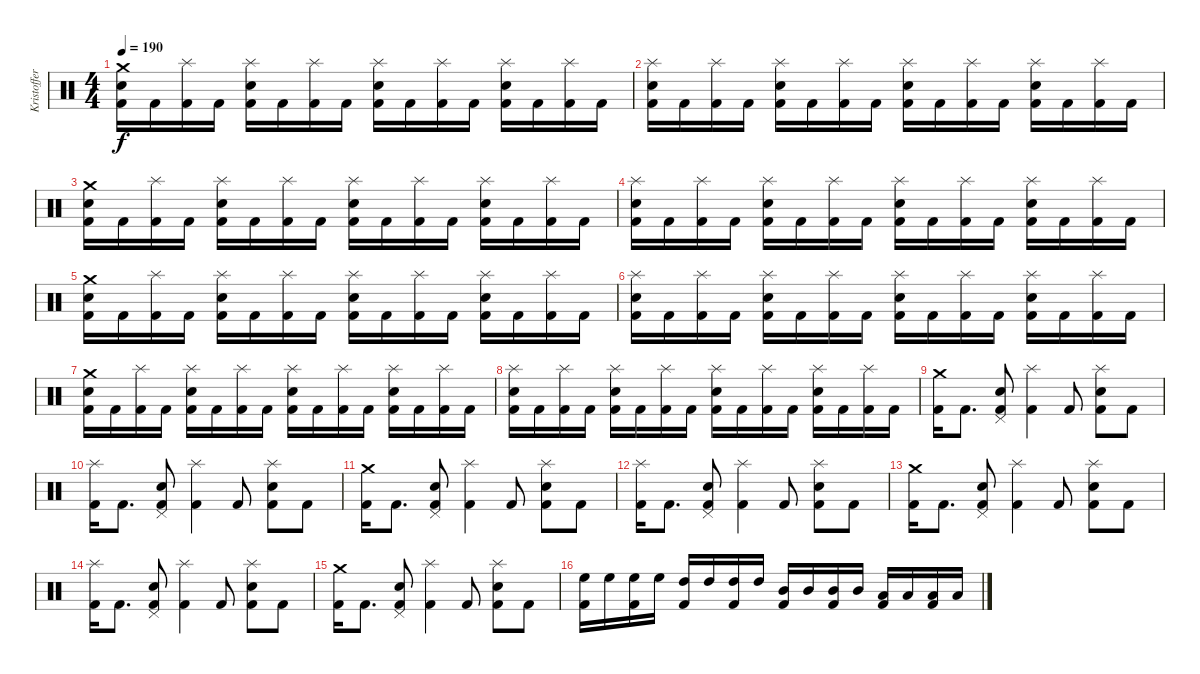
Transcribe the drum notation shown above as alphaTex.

\track ("Kristoffer (Drums)" "Kristoffer") {instrument percussion}
\staff {score}
\articulation defaults
\ts (4 4)
\tempo 190
\clef neutral
\ks c
("Kick (hit) 2" "Electric Snare (hit)" "Crash medium (hit)").16{dy f} "Kick (hit) 2".16 ("Kick (hit) 2" "Splash (hit)").16 "Kick (hit) 2".16 ("Kick (hit) 2" "Electric Snare (hit)" "Splash (hit)").16 "Kick (hit) 2".16 ("Kick (hit) 2" "Splash (hit)").16 "Kick (hit) 2".16 ("Kick (hit) 2" "Electric Snare (hit)" "Splash (hit)").16 "Kick (hit) 2".16 ("Kick (hit) 2" "Splash (hit)").16 "Kick (hit) 2".16 ("Kick (hit) 2" "Electric Snare (hit)" "Splash (hit)").16 "Kick (hit) 2".16 ("Kick (hit) 2" "Splash (hit)").16 "Kick (hit) 2".16 |
("Kick (hit) 2" "Electric Snare (hit)" "Splash (hit)").16 "Kick (hit) 2".16 ("Kick (hit) 2" "Splash (hit)").16 "Kick (hit) 2".16 ("Kick (hit) 2" "Electric Snare (hit)" "Splash (hit)").16 "Kick (hit) 2".16 ("Kick (hit) 2" "Splash (hit)").16 "Kick (hit) 2".16 ("Kick (hit) 2" "Electric Snare (hit)" "Splash (hit)").16 "Kick (hit) 2".16 ("Kick (hit) 2" "Splash (hit)").16 "Kick (hit) 2".16 ("Kick (hit) 2" "Electric Snare (hit)" "Splash (hit)").16 "Kick (hit) 2".16 ("Kick (hit) 2" "Splash (hit)").16 "Kick (hit) 2".16 |
("Kick (hit) 2" "Electric Snare (hit)" "Crash medium (hit)").16 "Kick (hit) 2".16 ("Kick (hit) 2" "Splash (hit)").16 "Kick (hit) 2".16 ("Kick (hit) 2" "Electric Snare (hit)" "Splash (hit)").16 "Kick (hit) 2".16 ("Kick (hit) 2" "Splash (hit)").16 "Kick (hit) 2".16 ("Kick (hit) 2" "Electric Snare (hit)" "Splash (hit)").16 "Kick (hit) 2".16 ("Kick (hit) 2" "Splash (hit)").16 "Kick (hit) 2".16 ("Kick (hit) 2" "Electric Snare (hit)" "Splash (hit)").16 "Kick (hit) 2".16 ("Kick (hit) 2" "Splash (hit)").16 "Kick (hit) 2".16 |
("Kick (hit) 2" "Electric Snare (hit)" "Splash (hit)").16 "Kick (hit) 2".16 ("Kick (hit) 2" "Splash (hit)").16 "Kick (hit) 2".16 ("Kick (hit) 2" "Electric Snare (hit)" "Splash (hit)").16 "Kick (hit) 2".16 ("Kick (hit) 2" "Splash (hit)").16 "Kick (hit) 2".16 ("Kick (hit) 2" "Electric Snare (hit)" "Splash (hit)").16 "Kick (hit) 2".16 ("Kick (hit) 2" "Splash (hit)").16 "Kick (hit) 2".16 ("Kick (hit) 2" "Electric Snare (hit)" "Splash (hit)").16 "Kick (hit) 2".16 ("Kick (hit) 2" "Splash (hit)").16 "Kick (hit) 2".16 |
("Kick (hit) 2" "Electric Snare (hit)" "Crash medium (hit)").16 "Kick (hit) 2".16 ("Kick (hit) 2" "Splash (hit)").16 "Kick (hit) 2".16 ("Kick (hit) 2" "Electric Snare (hit)" "Splash (hit)").16 "Kick (hit) 2".16 ("Kick (hit) 2" "Splash (hit)").16 "Kick (hit) 2".16 ("Kick (hit) 2" "Electric Snare (hit)" "Splash (hit)").16 "Kick (hit) 2".16 ("Kick (hit) 2" "Splash (hit)").16 "Kick (hit) 2".16 ("Kick (hit) 2" "Electric Snare (hit)" "Splash (hit)").16 "Kick (hit) 2".16 ("Kick (hit) 2" "Splash (hit)").16 "Kick (hit) 2".16 |
("Kick (hit) 2" "Electric Snare (hit)" "Splash (hit)").16 "Kick (hit) 2".16 ("Kick (hit) 2" "Splash (hit)").16 "Kick (hit) 2".16 ("Kick (hit) 2" "Electric Snare (hit)" "Splash (hit)").16 "Kick (hit) 2".16 ("Kick (hit) 2" "Splash (hit)").16 "Kick (hit) 2".16 ("Kick (hit) 2" "Electric Snare (hit)" "Splash (hit)").16 "Kick (hit) 2".16 ("Kick (hit) 2" "Splash (hit)").16 "Kick (hit) 2".16 ("Kick (hit) 2" "Electric Snare (hit)" "Splash (hit)").16 "Kick (hit) 2".16 ("Kick (hit) 2" "Splash (hit)").16 "Kick (hit) 2".16 |
("Kick (hit) 2" "Electric Snare (hit)" "Crash medium (hit)").16 "Kick (hit) 2".16 ("Kick (hit) 2" "Splash (hit)").16 "Kick (hit) 2".16 ("Kick (hit) 2" "Electric Snare (hit)" "Splash (hit)").16 "Kick (hit) 2".16 ("Kick (hit) 2" "Splash (hit)").16 "Kick (hit) 2".16 ("Kick (hit) 2" "Electric Snare (hit)" "Splash (hit)").16 "Kick (hit) 2".16 ("Kick (hit) 2" "Splash (hit)").16 "Kick (hit) 2".16 ("Kick (hit) 2" "Electric Snare (hit)" "Splash (hit)").16 "Kick (hit) 2".16 ("Kick (hit) 2" "Splash (hit)").16 "Kick (hit) 2".16 |
("Kick (hit) 2" "Electric Snare (hit)" "Splash (hit)").16 "Kick (hit) 2".16 ("Kick (hit) 2" "Splash (hit)").16 "Kick (hit) 2".16 ("Kick (hit) 2" "Electric Snare (hit)" "Splash (hit)").16 "Kick (hit) 2".16 ("Kick (hit) 2" "Splash (hit)").16 "Kick (hit) 2".16 ("Kick (hit) 2" "Electric Snare (hit)" "Splash (hit)").16 "Kick (hit) 2".16 ("Kick (hit) 2" "Splash (hit)").16 "Kick (hit) 2".16 ("Kick (hit) 2" "Electric Snare (hit)" "Splash (hit)").16 "Kick (hit) 2".16 ("Kick (hit) 2" "Splash (hit)").16 "Kick (hit) 2".16 |
("Kick (hit) 2" "Crash medium (hit)").16 "Kick (hit) 2".8{d} ("Kick (hit) 2" "Electric Snare (hit)" "Pedal Hi-Hat (hit)").8 ("Kick (hit) 2" "Splash (hit)").4 "Kick (hit) 2".8 ("Kick (hit) 2" "Electric Snare (hit)" "Splash (hit)").8 "Kick (hit) 2".8 |
("Kick (hit) 2" "Splash (hit)").16 "Kick (hit) 2".8{d} ("Kick (hit) 2" "Electric Snare (hit)" "Pedal Hi-Hat (hit)").8 ("Kick (hit) 2" "Splash (hit)").4 "Kick (hit) 2".8 ("Kick (hit) 2" "Electric Snare (hit)" "Splash (hit)").8 "Kick (hit) 2".8 |
("Kick (hit) 2" "Crash medium (hit)").16 "Kick (hit) 2".8{d} ("Kick (hit) 2" "Electric Snare (hit)" "Pedal Hi-Hat (hit)").8 ("Kick (hit) 2" "Splash (hit)").4 "Kick (hit) 2".8 ("Kick (hit) 2" "Electric Snare (hit)" "Splash (hit)").8 "Kick (hit) 2".8 |
("Kick (hit) 2" "Splash (hit)").16 "Kick (hit) 2".8{d} ("Kick (hit) 2" "Electric Snare (hit)" "Pedal Hi-Hat (hit)").8 ("Kick (hit) 2" "Splash (hit)").4 "Kick (hit) 2".8 ("Kick (hit) 2" "Electric Snare (hit)" "Splash (hit)").8 "Kick (hit) 2".8 |
("Kick (hit) 2" "Crash medium (hit)").16 "Kick (hit) 2".8{d} ("Kick (hit) 2" "Electric Snare (hit)" "Pedal Hi-Hat (hit)").8 ("Kick (hit) 2" "Splash (hit)").4 "Kick (hit) 2".8 ("Kick (hit) 2" "Electric Snare (hit)" "Splash (hit)").8 "Kick (hit) 2".8 |
("Kick (hit) 2" "Splash (hit)").16 "Kick (hit) 2".8{d} ("Kick (hit) 2" "Electric Snare (hit)" "Pedal Hi-Hat (hit)").8 ("Kick (hit) 2" "Splash (hit)").4 "Kick (hit) 2".8 ("Kick (hit) 2" "Electric Snare (hit)" "Splash (hit)").8 "Kick (hit) 2".8 |
("Kick (hit) 2" "Crash medium (hit)").16 "Kick (hit) 2".8{d} ("Kick (hit) 2" "Electric Snare (hit)" "Pedal Hi-Hat (hit)").8 ("Kick (hit) 2" "Splash (hit)").4 "Kick (hit) 2".8 ("Kick (hit) 2" "Electric Snare (hit)" "Splash (hit)").8 "Kick (hit) 2".8 |
("Kick (hit) 2" "High Floor Tom (hit)").16 "High Floor Tom (hit)".16 ("Kick (hit) 2" "High Floor Tom (hit)").16 "High Floor Tom (hit)".16 ("Kick (hit) 2" "High Tom (hit)").16 "High Tom (hit)".16 ("Kick (hit) 2" "High Tom (hit)").16 "High Tom (hit)".16 ("Kick (hit) 2" "Mid Tom (hit)").16 "Mid Tom (hit)".16 ("Kick (hit) 2" "Mid Tom (hit)").16 "Mid Tom (hit)".16 ("Kick (hit) 2" "Low Tom (hit)").16 "Low Tom (hit)".16 ("Kick (hit) 2" "Low Tom (hit)").16 "Low Tom (hit)".16
